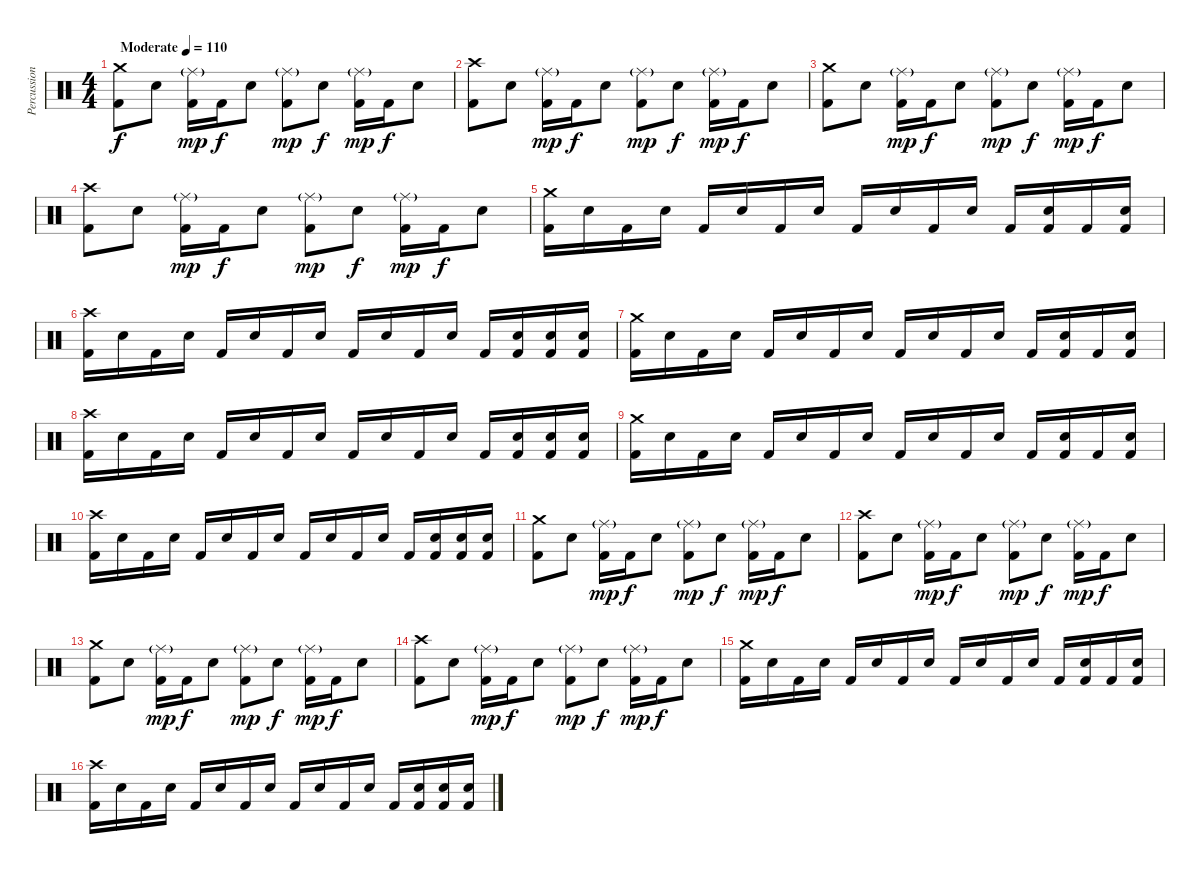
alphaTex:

\track ("Percussion" "Percussion") {instrument percussion}
\staff {score}
\articulation defaults
\ts (4 4)
\tempo (110 "Moderate")
\clef neutral
\ks c
("Crash medium (hit)" "Kick (hit) 2").8{dy f} "Electric Snare (hit)".8 ("Ride (middle)"{g} "Kick (hit) 2").16{dy mp} "Kick (hit) 2".16{dy f} "Electric Snare (hit)".8 ("Ride (middle)"{g} "Kick (hit) 2").8{dy mp} "Electric Snare (hit)".8{dy f} ("Ride (middle)"{g} "Kick (hit) 2").16{dy mp} "Kick (hit) 2".16{dy f} "Electric Snare (hit)".8 |
("Crash high (hit)" "Kick (hit) 2").8 "Electric Snare (hit)".8 ("Ride (middle)"{g} "Kick (hit) 2").16{dy mp} "Kick (hit) 2".16{dy f} "Electric Snare (hit)".8 ("Ride (middle)"{g} "Kick (hit) 2").8{dy mp} "Electric Snare (hit)".8{dy f} ("Ride (middle)"{g} "Kick (hit) 2").16{dy mp} "Kick (hit) 2".16{dy f} "Electric Snare (hit)".8 |
("Crash medium (hit)" "Kick (hit) 2").8 "Electric Snare (hit)".8 ("Ride (middle)"{g} "Kick (hit) 2").16{dy mp} "Kick (hit) 2".16{dy f} "Electric Snare (hit)".8 ("Ride (middle)"{g} "Kick (hit) 2").8{dy mp} "Electric Snare (hit)".8{dy f} ("Ride (middle)"{g} "Kick (hit) 2").16{dy mp} "Kick (hit) 2".16{dy f} "Electric Snare (hit)".8 |
("Crash high (hit)" "Kick (hit) 2").8 "Electric Snare (hit)".8 ("Ride (middle)"{g} "Kick (hit) 2").16{dy mp} "Kick (hit) 2".16{dy f} "Electric Snare (hit)".8 ("Ride (middle)"{g} "Kick (hit) 2").8{dy mp} "Electric Snare (hit)".8{dy f} ("Ride (middle)"{g} "Kick (hit) 2").16{dy mp} "Kick (hit) 2".16{dy f} "Electric Snare (hit)".8 |
("Crash medium (hit)" "Kick (hit) 2").16 "Electric Snare (hit)".16 "Kick (hit) 2".16 "Electric Snare (hit)".16 "Kick (hit) 2".16 "Electric Snare (hit)".16 "Kick (hit) 2".16 "Electric Snare (hit)".16 "Kick (hit) 2".16 "Electric Snare (hit)".16 "Kick (hit) 2".16 "Electric Snare (hit)".16 "Kick (hit) 2".16 ("Electric Snare (hit)" "Kick (hit) 2").16 "Kick (hit) 2".16 ("Electric Snare (hit)" "Kick (hit) 2").16 |
("Crash high (hit)" "Kick (hit) 2").16 "Electric Snare (hit)".16 "Kick (hit) 2".16 "Electric Snare (hit)".16 "Kick (hit) 2".16 "Electric Snare (hit)".16 "Kick (hit) 2".16 "Electric Snare (hit)".16 "Kick (hit) 2".16 "Electric Snare (hit)".16 "Kick (hit) 2".16 "Electric Snare (hit)".16 "Kick (hit) 2".16 ("Electric Snare (hit)" "Kick (hit) 2").16 ("Electric Snare (hit)" "Kick (hit) 2").16 ("Electric Snare (hit)" "Kick (hit) 2").16 |
("Crash medium (hit)" "Kick (hit) 2").16 "Electric Snare (hit)".16 "Kick (hit) 2".16 "Electric Snare (hit)".16 "Kick (hit) 2".16 "Electric Snare (hit)".16 "Kick (hit) 2".16 "Electric Snare (hit)".16 "Kick (hit) 2".16 "Electric Snare (hit)".16 "Kick (hit) 2".16 "Electric Snare (hit)".16 "Kick (hit) 2".16 ("Electric Snare (hit)" "Kick (hit) 2").16 "Kick (hit) 2".16 ("Electric Snare (hit)" "Kick (hit) 2").16 |
("Crash high (hit)" "Kick (hit) 2").16 "Electric Snare (hit)".16 "Kick (hit) 2".16 "Electric Snare (hit)".16 "Kick (hit) 2".16 "Electric Snare (hit)".16 "Kick (hit) 2".16 "Electric Snare (hit)".16 "Kick (hit) 2".16 "Electric Snare (hit)".16 "Kick (hit) 2".16 "Electric Snare (hit)".16 "Kick (hit) 2".16 ("Electric Snare (hit)" "Kick (hit) 2").16 ("Electric Snare (hit)" "Kick (hit) 2").16 ("Electric Snare (hit)" "Kick (hit) 2").16 |
("Crash medium (hit)" "Kick (hit) 2").16 "Electric Snare (hit)".16 "Kick (hit) 2".16 "Electric Snare (hit)".16 "Kick (hit) 2".16 "Electric Snare (hit)".16 "Kick (hit) 2".16 "Electric Snare (hit)".16 "Kick (hit) 2".16 "Electric Snare (hit)".16 "Kick (hit) 2".16 "Electric Snare (hit)".16 "Kick (hit) 2".16 ("Electric Snare (hit)" "Kick (hit) 2").16 "Kick (hit) 2".16 ("Electric Snare (hit)" "Kick (hit) 2").16 |
("Crash high (hit)" "Kick (hit) 2").16 "Electric Snare (hit)".16 "Kick (hit) 2".16 "Electric Snare (hit)".16 "Kick (hit) 2".16 "Electric Snare (hit)".16 "Kick (hit) 2".16 "Electric Snare (hit)".16 "Kick (hit) 2".16 "Electric Snare (hit)".16 "Kick (hit) 2".16 "Electric Snare (hit)".16 "Kick (hit) 2".16 ("Electric Snare (hit)" "Kick (hit) 2").16 ("Electric Snare (hit)" "Kick (hit) 2").16 ("Electric Snare (hit)" "Kick (hit) 2").16 |
("Crash medium (hit)" "Kick (hit) 2").8 "Electric Snare (hit)".8 ("Ride (middle)"{g} "Kick (hit) 2").16{dy mp} "Kick (hit) 2".16{dy f} "Electric Snare (hit)".8 ("Ride (middle)"{g} "Kick (hit) 2").8{dy mp} "Electric Snare (hit)".8{dy f} ("Ride (middle)"{g} "Kick (hit) 2").16{dy mp} "Kick (hit) 2".16{dy f} "Electric Snare (hit)".8 |
("Crash high (hit)" "Kick (hit) 2").8 "Electric Snare (hit)".8 ("Ride (middle)"{g} "Kick (hit) 2").16{dy mp} "Kick (hit) 2".16{dy f} "Electric Snare (hit)".8 ("Ride (middle)"{g} "Kick (hit) 2").8{dy mp} "Electric Snare (hit)".8{dy f} ("Ride (middle)"{g} "Kick (hit) 2").16{dy mp} "Kick (hit) 2".16{dy f} "Electric Snare (hit)".8 |
("Crash medium (hit)" "Kick (hit) 2").8 "Electric Snare (hit)".8 ("Ride (middle)"{g} "Kick (hit) 2").16{dy mp} "Kick (hit) 2".16{dy f} "Electric Snare (hit)".8 ("Ride (middle)"{g} "Kick (hit) 2").8{dy mp} "Electric Snare (hit)".8{dy f} ("Ride (middle)"{g} "Kick (hit) 2").16{dy mp} "Kick (hit) 2".16{dy f} "Electric Snare (hit)".8 |
("Crash high (hit)" "Kick (hit) 2").8 "Electric Snare (hit)".8 ("Ride (middle)"{g} "Kick (hit) 2").16{dy mp} "Kick (hit) 2".16{dy f} "Electric Snare (hit)".8 ("Ride (middle)"{g} "Kick (hit) 2").8{dy mp} "Electric Snare (hit)".8{dy f} ("Ride (middle)"{g} "Kick (hit) 2").16{dy mp} "Kick (hit) 2".16{dy f} "Electric Snare (hit)".8 |
("Crash medium (hit)" "Kick (hit) 2").16 "Electric Snare (hit)".16 "Kick (hit) 2".16 "Electric Snare (hit)".16 "Kick (hit) 2".16 "Electric Snare (hit)".16 "Kick (hit) 2".16 "Electric Snare (hit)".16 "Kick (hit) 2".16 "Electric Snare (hit)".16 "Kick (hit) 2".16 "Electric Snare (hit)".16 "Kick (hit) 2".16 ("Electric Snare (hit)" "Kick (hit) 2").16 "Kick (hit) 2".16 ("Electric Snare (hit)" "Kick (hit) 2").16 |
("Crash high (hit)" "Kick (hit) 2").16 "Electric Snare (hit)".16 "Kick (hit) 2".16 "Electric Snare (hit)".16 "Kick (hit) 2".16 "Electric Snare (hit)".16 "Kick (hit) 2".16 "Electric Snare (hit)".16 "Kick (hit) 2".16 "Electric Snare (hit)".16 "Kick (hit) 2".16 "Electric Snare (hit)".16 "Kick (hit) 2".16 ("Electric Snare (hit)" "Kick (hit) 2").16 ("Electric Snare (hit)" "Kick (hit) 2").16 ("Electric Snare (hit)" "Kick (hit) 2").16
